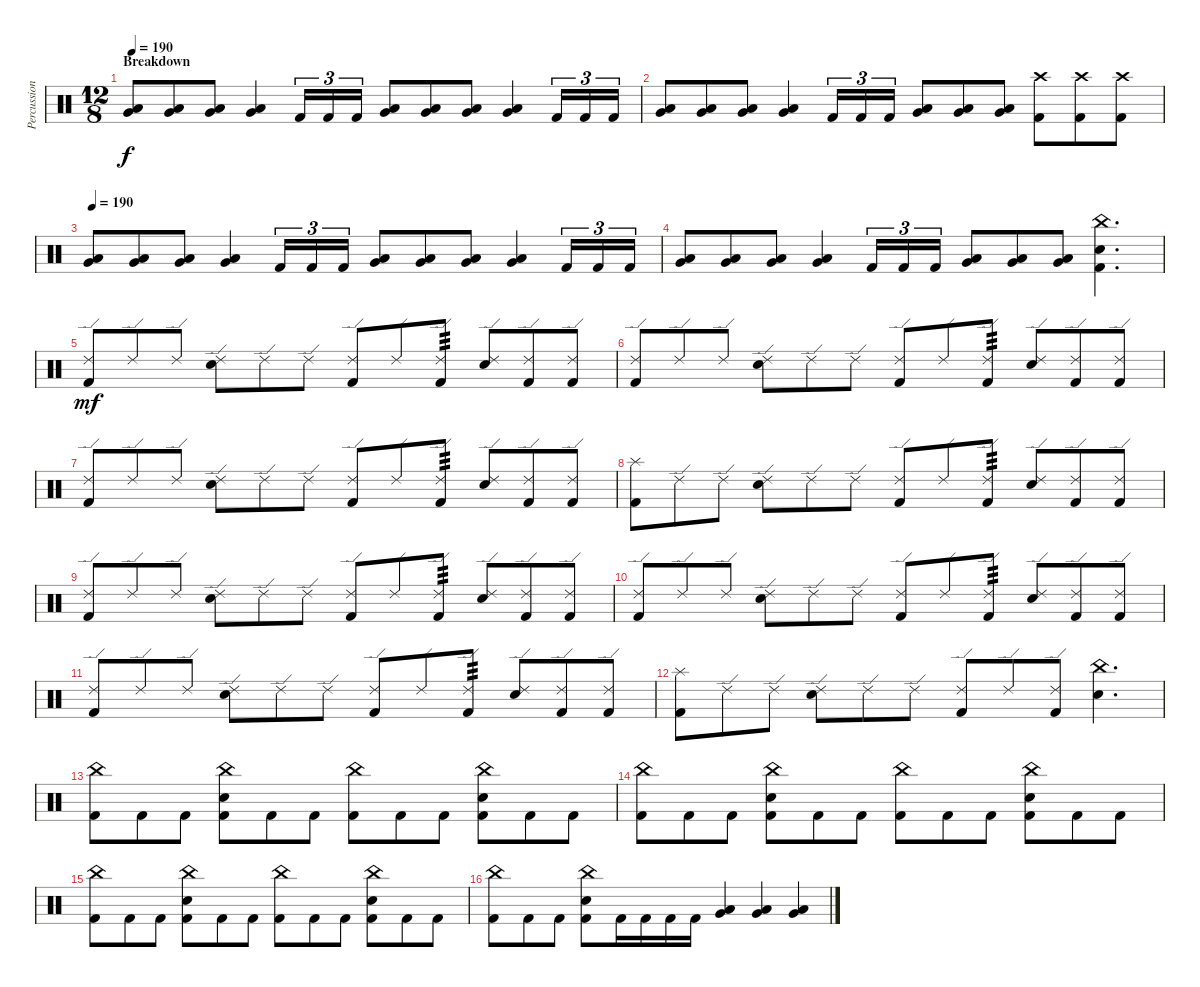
\track ("Percussion" "Percussion") {instrument percussion}
\staff {score}
\articulation defaults
\ts (12 8)
\section ("" "Breakdown")
\tempo 190
\clef neutral
\ks c
("Very Low Tom (hit)" "Low Floor Tom (hit)").8{dy f} ("Very Low Tom (hit)" "Low Floor Tom (hit)").8 ("Very Low Tom (hit)" "Low Floor Tom (hit)").8 ("Very Low Tom (hit)" "Low Floor Tom (hit)").4 "Kick (hit) 2".16{tu (3 2)} "Kick (hit) 2".16{tu (3 2)} "Kick (hit) 2".16{tu (3 2)} ("Very Low Tom (hit)" "Low Floor Tom (hit)").8 ("Very Low Tom (hit)" "Low Floor Tom (hit)").8 ("Very Low Tom (hit)" "Low Floor Tom (hit)").8 ("Very Low Tom (hit)" "Low Floor Tom (hit)").4 "Kick (hit) 2".16{tu (3 2)} "Kick (hit) 2".16{tu (3 2)} "Kick (hit) 2".16{tu (3 2)} |
("Very Low Tom (hit)" "Low Floor Tom (hit)").8 ("Very Low Tom (hit)" "Low Floor Tom (hit)").8 ("Very Low Tom (hit)" "Low Floor Tom (hit)").8 ("Very Low Tom (hit)" "Low Floor Tom (hit)").4 "Kick (hit) 2".16{tu (3 2)} "Kick (hit) 2".16{tu (3 2)} "Kick (hit) 2".16{tu (3 2)} ("Very Low Tom (hit)" "Low Floor Tom (hit)").8 ("Very Low Tom (hit)" "Low Floor Tom (hit)").8 ("Very Low Tom (hit)" "Low Floor Tom (hit)").8 ("Crash high (hit)" "Kick (hit) 2").8 ("Crash high (hit)" "Kick (hit) 2").8 ("Crash high (hit)" "Kick (hit) 2").8 |
\tempo 190
("Very Low Tom (hit)" "Low Floor Tom (hit)").8 ("Very Low Tom (hit)" "Low Floor Tom (hit)").8 ("Very Low Tom (hit)" "Low Floor Tom (hit)").8 ("Very Low Tom (hit)" "Low Floor Tom (hit)").4 "Kick (hit) 2".16{tu (3 2)} "Kick (hit) 2".16{tu (3 2)} "Kick (hit) 2".16{tu (3 2)} ("Very Low Tom (hit)" "Low Floor Tom (hit)").8 ("Very Low Tom (hit)" "Low Floor Tom (hit)").8 ("Very Low Tom (hit)" "Low Floor Tom (hit)").8 ("Very Low Tom (hit)" "Low Floor Tom (hit)").4 "Kick (hit) 2".16{tu (3 2)} "Kick (hit) 2".16{tu (3 2)} "Kick (hit) 2".16{tu (3 2)} |
("Very Low Tom (hit)" "Low Floor Tom (hit)").8 ("Very Low Tom (hit)" "Low Floor Tom (hit)").8 ("Very Low Tom (hit)" "Low Floor Tom (hit)").8 ("Very Low Tom (hit)" "Low Floor Tom (hit)").4 "Kick (hit) 2".16{tu (3 2)} "Kick (hit) 2".16{tu (3 2)} "Kick (hit) 2".16{tu (3 2)} ("Very Low Tom (hit)" "Low Floor Tom (hit)").8 ("Very Low Tom (hit)" "Low Floor Tom (hit)").8 ("Very Low Tom (hit)" "Low Floor Tom (hit)").8 ("Electric Snare (hit)" "China (hit)" "Kick (hit) 2").4{d} |
("Ride (edge) 2" "Kick (hit) 2").8{dy mf} "Ride (edge) 2".8 "Ride (edge) 2".8 ("Electric Snare (hit)" "Ride (edge) 2").8 "Ride (edge) 2".8 "Ride (edge) 2".8 ("Ride (edge) 2" "Kick (hit) 2").8 "Ride (edge) 2".8 ("Ride (edge) 2" "Kick (hit) 2").8{tp 3} ("Electric Snare (hit)" "Ride (edge) 2").8 ("Ride (edge) 2" "Kick (hit) 2").8 ("Ride (edge) 2" "Kick (hit) 2").8 |
("Ride (edge) 2" "Kick (hit) 2").8 "Ride (edge) 2".8 "Ride (edge) 2".8 ("Electric Snare (hit)" "Ride (edge) 2").8 "Ride (edge) 2".8 "Ride (edge) 2".8 ("Ride (edge) 2" "Kick (hit) 2").8 "Ride (edge) 2".8 ("Ride (edge) 2" "Kick (hit) 2").8{tp 3} ("Electric Snare (hit)" "Ride (edge) 2").8 ("Ride (edge) 2" "Kick (hit) 2").8 ("Ride (edge) 2" "Kick (hit) 2").8 |
("Ride (edge) 2" "Kick (hit) 2").8 "Ride (edge) 2".8 "Ride (edge) 2".8 ("Electric Snare (hit)" "Ride (edge) 2").8 "Ride (edge) 2".8 "Ride (edge) 2".8 ("Ride (edge) 2" "Kick (hit) 2").8 "Ride (edge) 2".8 ("Ride (edge) 2" "Kick (hit) 2").8{tp 3} ("Electric Snare (hit)" "Ride (edge) 2").8 ("Ride (edge) 2" "Kick (hit) 2").8 ("Ride (edge) 2" "Kick (hit) 2").8 |
("Splash (hit)" "Kick (hit) 2").8 "Ride (edge) 2".8 "Ride (edge) 2".8 ("Electric Snare (hit)" "Ride (edge) 2").8 "Ride (edge) 2".8 "Ride (edge) 2".8 ("Ride (edge) 2" "Kick (hit) 2").8 "Ride (edge) 2".8 ("Ride (edge) 2" "Kick (hit) 2").8{tp 3} ("Electric Snare (hit)" "Ride (edge) 2").8 ("Ride (edge) 2" "Kick (hit) 2").8 ("Ride (edge) 2" "Kick (hit) 2").8 |
("Ride (edge) 2" "Kick (hit) 2").8 "Ride (edge) 2".8 "Ride (edge) 2".8 ("Electric Snare (hit)" "Ride (edge) 2").8 "Ride (edge) 2".8 "Ride (edge) 2".8 ("Ride (edge) 2" "Kick (hit) 2").8 "Ride (edge) 2".8 ("Ride (edge) 2" "Kick (hit) 2").8{tp 3} ("Electric Snare (hit)" "Ride (edge) 2").8 ("Ride (edge) 2" "Kick (hit) 2").8 ("Ride (edge) 2" "Kick (hit) 2").8 |
("Ride (edge) 2" "Kick (hit) 2").8 "Ride (edge) 2".8 "Ride (edge) 2".8 ("Electric Snare (hit)" "Ride (edge) 2").8 "Ride (edge) 2".8 "Ride (edge) 2".8 ("Ride (edge) 2" "Kick (hit) 2").8 "Ride (edge) 2".8 ("Ride (edge) 2" "Kick (hit) 2").8{tp 3} ("Electric Snare (hit)" "Ride (edge) 2").8 ("Ride (edge) 2" "Kick (hit) 2").8 ("Ride (edge) 2" "Kick (hit) 2").8 |
("Ride (edge) 2" "Kick (hit) 2").8 "Ride (edge) 2".8 "Ride (edge) 2".8 ("Electric Snare (hit)" "Ride (edge) 2").8 "Ride (edge) 2".8 "Ride (edge) 2".8 ("Ride (edge) 2" "Kick (hit) 2").8 "Ride (edge) 2".8 ("Ride (edge) 2" "Kick (hit) 2").8{tp 3} ("Electric Snare (hit)" "Ride (edge) 2").8 ("Ride (edge) 2" "Kick (hit) 2").8 ("Ride (edge) 2" "Kick (hit) 2").8 |
("Splash (hit)" "Kick (hit) 2").8 "Ride (edge) 2".8 "Ride (edge) 2".8 ("Electric Snare (hit)" "Ride (edge) 2").8 "Ride (edge) 2".8 "Ride (edge) 2".8 ("Ride (edge) 2" "Kick (hit) 2").8 "Ride (edge) 2".8 ("Ride (edge) 2" "Kick (hit) 2").8 ("Electric Snare (hit)" "China (hit)").4{d} |
("China (hit)" "Kick (hit) 2").8 "Kick (hit) 2".8 "Kick (hit) 2".8 ("Electric Snare (hit)" "China (hit)" "Kick (hit) 2").8 "Kick (hit) 2".8 "Kick (hit) 2".8 ("China (hit)" "Kick (hit) 2").8 "Kick (hit) 2".8 "Kick (hit) 2".8 ("Electric Snare (hit)" "China (hit)" "Kick (hit) 2").8 "Kick (hit) 2".8 "Kick (hit) 2".8 |
("China (hit)" "Kick (hit) 2").8 "Kick (hit) 2".8 "Kick (hit) 2".8 ("Electric Snare (hit)" "China (hit)" "Kick (hit) 2").8 "Kick (hit) 2".8 "Kick (hit) 2".8 ("China (hit)" "Kick (hit) 2").8 "Kick (hit) 2".8 "Kick (hit) 2".8 ("Electric Snare (hit)" "China (hit)" "Kick (hit) 2").8 "Kick (hit) 2".8 "Kick (hit) 2".8 |
("China (hit)" "Kick (hit) 2").8 "Kick (hit) 2".8 "Kick (hit) 2".8 ("Electric Snare (hit)" "China (hit)" "Kick (hit) 2").8 "Kick (hit) 2".8 "Kick (hit) 2".8 ("China (hit)" "Kick (hit) 2").8 "Kick (hit) 2".8 "Kick (hit) 2".8 ("Electric Snare (hit)" "China (hit)" "Kick (hit) 2").8 "Kick (hit) 2".8 "Kick (hit) 2".8 |
("China (hit)" "Kick (hit) 2").8 "Kick (hit) 2".8 "Kick (hit) 2".8 ("Electric Snare (hit)" "China (hit)" "Kick (hit) 2").8 "Kick (hit) 2".16 "Kick (hit) 2".16 "Kick (hit) 2".16 "Kick (hit) 2".16 ("Low Tom (hit)" "Very Low Tom (hit)").4 ("Very Low Tom (hit)" "Low Floor Tom (hit)").4 ("Low Tom (hit)" "Very Low Tom (hit)").4
